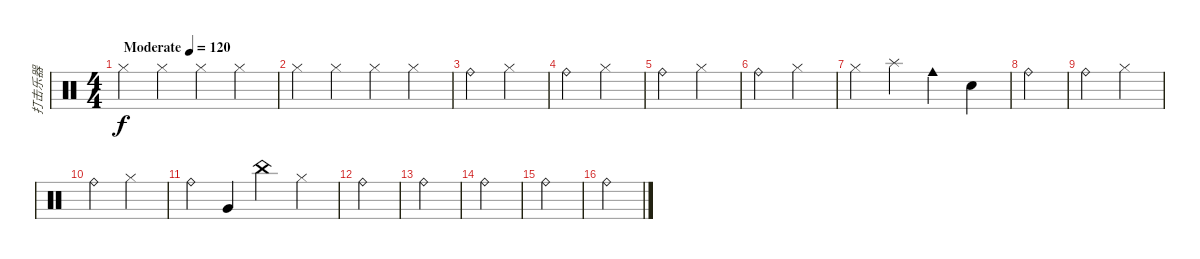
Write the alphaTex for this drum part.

\track ("打击乐器" "打击乐器") {instrument percussion}
\staff {score}
\articulation defaults
\ts (4 4)
\tempo (120 "Moderate")
\clef neutral
\ks c "Hi-Hat (closed)".4{dy f} "Hi-Hat (closed)".4 "Hi-Hat (closed)".4 "Hi-Hat (closed)".4
|
"Hi-Hat (closed)".4 "Hi-Hat (closed)".4 "Hi-Hat (closed)".4 "Hi-Hat (closed)".4 |
"Ride (bell)".4 "Hi-Hat (closed)".4 |
"Ride (bell)".4 "Hi-Hat (closed)".4 |
"Ride (bell)".4 "Hi-Hat (closed)".4 |
"Ride (bell)".4 "Hi-Hat (closed)".4 |
"Hi-Hat (closed)".4 "Splash (hit)".4 "Cowbell medium (hit)".4 "Snare (hit) 2".4 |
"Ride (bell)".4 |
"Ride (bell)".4 "Hi-Hat (closed)".4 |
"Ride (bell)".4 "Hi-Hat (closed)".4 |
"Ride (bell)".4 "Very Low Tom (hit)".4 "China (hit)".4 "Hi-Hat (closed)".4 |
"Ride (bell)".4 |
"Ride (bell)".4 |
"Ride (bell)".4 |
"Ride (bell)".4 |
"Ride (bell)".4
